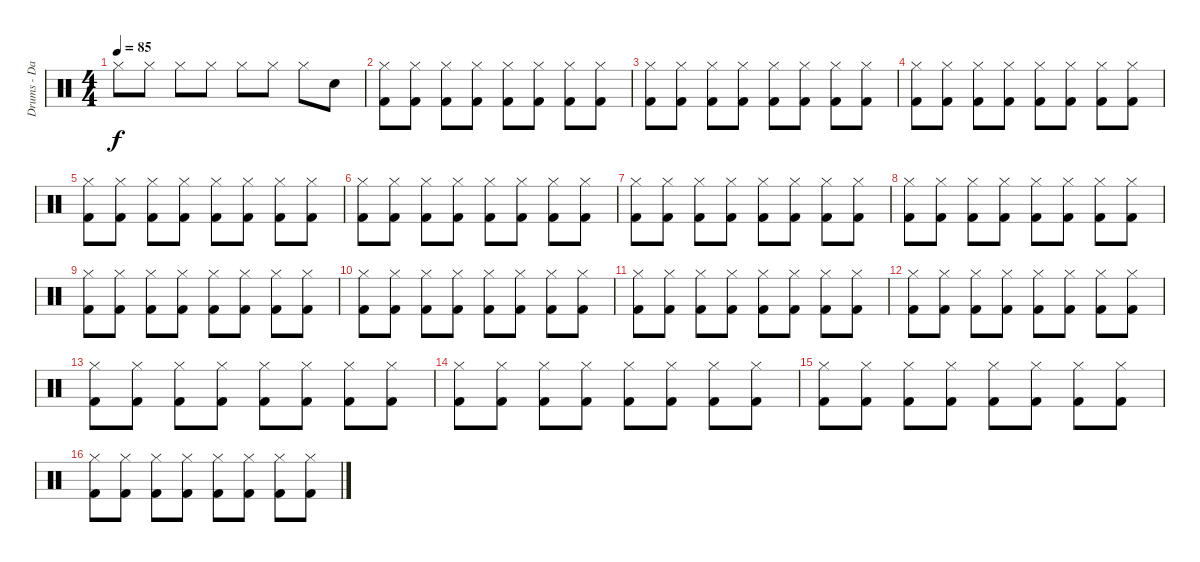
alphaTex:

\track ("Drums - Daniel Zimmermann" "Drums - Da") {instrument percussion}
\staff {score}
\articulation defaults
\ts (4 4)
\tempo 85
\clef neutral
\ks c "Hi-Hat (closed)".8{dy f} "Hi-Hat (closed)".8 "Hi-Hat (closed)".8 "Hi-Hat (closed)".8 "Hi-Hat (closed)".8 "Hi-Hat (closed)".8 "Hi-Hat (closed)".8 "Snare (hit) 2".8
|
("Hi-Hat (closed)" "Kick (hit) 2").8 ("Hi-Hat (closed)" "Kick (hit) 2").8 ("Hi-Hat (closed)" "Kick (hit) 2").8 ("Hi-Hat (closed)" "Kick (hit) 2").8 ("Hi-Hat (closed)" "Kick (hit) 2").8 ("Hi-Hat (closed)" "Kick (hit) 2").8 ("Hi-Hat (closed)" "Kick (hit) 2").8 ("Hi-Hat (closed)" "Kick (hit) 2").8 |
("Hi-Hat (closed)" "Kick (hit) 2").8 ("Hi-Hat (closed)" "Kick (hit) 2").8 ("Hi-Hat (closed)" "Kick (hit) 2").8 ("Hi-Hat (closed)" "Kick (hit) 2").8 ("Hi-Hat (closed)" "Kick (hit) 2").8 ("Hi-Hat (closed)" "Kick (hit) 2").8 ("Hi-Hat (closed)" "Kick (hit) 2").8 ("Hi-Hat (closed)" "Kick (hit) 2").8 |
("Hi-Hat (closed)" "Kick (hit) 2").8 ("Hi-Hat (closed)" "Kick (hit) 2").8 ("Hi-Hat (closed)" "Kick (hit) 2").8 ("Hi-Hat (closed)" "Kick (hit) 2").8 ("Hi-Hat (closed)" "Kick (hit) 2").8 ("Hi-Hat (closed)" "Kick (hit) 2").8 ("Hi-Hat (closed)" "Kick (hit) 2").8 ("Hi-Hat (closed)" "Kick (hit) 2").8 |
("Hi-Hat (closed)" "Kick (hit) 2").8 ("Hi-Hat (closed)" "Kick (hit) 2").8 ("Hi-Hat (closed)" "Kick (hit) 2").8 ("Hi-Hat (closed)" "Kick (hit) 2").8 ("Hi-Hat (closed)" "Kick (hit) 2").8 ("Hi-Hat (closed)" "Kick (hit) 2").8 ("Hi-Hat (closed)" "Kick (hit) 2").8 ("Hi-Hat (closed)" "Kick (hit) 2").8 |
("Hi-Hat (closed)" "Kick (hit) 2").8 ("Hi-Hat (closed)" "Kick (hit) 2").8 ("Hi-Hat (closed)" "Kick (hit) 2").8 ("Hi-Hat (closed)" "Kick (hit) 2").8 ("Hi-Hat (closed)" "Kick (hit) 2").8 ("Hi-Hat (closed)" "Kick (hit) 2").8 ("Hi-Hat (closed)" "Kick (hit) 2").8 ("Hi-Hat (closed)" "Kick (hit) 2").8 |
("Hi-Hat (closed)" "Kick (hit) 2").8 ("Hi-Hat (closed)" "Kick (hit) 2").8 ("Hi-Hat (closed)" "Kick (hit) 2").8 ("Hi-Hat (closed)" "Kick (hit) 2").8 ("Hi-Hat (closed)" "Kick (hit) 2").8 ("Hi-Hat (closed)" "Kick (hit) 2").8 ("Hi-Hat (closed)" "Kick (hit) 2").8 ("Hi-Hat (closed)" "Kick (hit) 2").8 |
("Hi-Hat (closed)" "Kick (hit) 2").8 ("Hi-Hat (closed)" "Kick (hit) 2").8 ("Hi-Hat (closed)" "Kick (hit) 2").8 ("Hi-Hat (closed)" "Kick (hit) 2").8 ("Hi-Hat (closed)" "Kick (hit) 2").8 ("Hi-Hat (closed)" "Kick (hit) 2").8 ("Hi-Hat (closed)" "Kick (hit) 2").8 ("Hi-Hat (closed)" "Kick (hit) 2").8 |
("Hi-Hat (closed)" "Kick (hit) 2").8 ("Hi-Hat (closed)" "Kick (hit) 2").8 ("Hi-Hat (closed)" "Kick (hit) 2").8 ("Hi-Hat (closed)" "Kick (hit) 2").8 ("Hi-Hat (closed)" "Kick (hit) 2").8 ("Hi-Hat (closed)" "Kick (hit) 2").8 ("Hi-Hat (closed)" "Kick (hit) 2").8 ("Hi-Hat (closed)" "Kick (hit) 2").8 |
("Hi-Hat (closed)" "Kick (hit) 2").8 ("Hi-Hat (closed)" "Kick (hit) 2").8 ("Hi-Hat (closed)" "Kick (hit) 2").8 ("Hi-Hat (closed)" "Kick (hit) 2").8 ("Hi-Hat (closed)" "Kick (hit) 2").8 ("Hi-Hat (closed)" "Kick (hit) 2").8 ("Hi-Hat (closed)" "Kick (hit) 2").8 ("Hi-Hat (closed)" "Kick (hit) 2").8 |
("Hi-Hat (closed)" "Kick (hit) 2").8 ("Hi-Hat (closed)" "Kick (hit) 2").8 ("Hi-Hat (closed)" "Kick (hit) 2").8 ("Hi-Hat (closed)" "Kick (hit) 2").8 ("Hi-Hat (closed)" "Kick (hit) 2").8 ("Hi-Hat (closed)" "Kick (hit) 2").8 ("Hi-Hat (closed)" "Kick (hit) 2").8 ("Hi-Hat (closed)" "Kick (hit) 2").8 |
("Hi-Hat (closed)" "Kick (hit) 2").8 ("Hi-Hat (closed)" "Kick (hit) 2").8 ("Hi-Hat (closed)" "Kick (hit) 2").8 ("Hi-Hat (closed)" "Kick (hit) 2").8 ("Hi-Hat (closed)" "Kick (hit) 2").8 ("Hi-Hat (closed)" "Kick (hit) 2").8 ("Hi-Hat (closed)" "Kick (hit) 2").8 ("Hi-Hat (closed)" "Kick (hit) 2").8 |
("Hi-Hat (closed)" "Kick (hit) 2").8 ("Hi-Hat (closed)" "Kick (hit) 2").8 ("Hi-Hat (closed)" "Kick (hit) 2").8 ("Hi-Hat (closed)" "Kick (hit) 2").8 ("Hi-Hat (closed)" "Kick (hit) 2").8 ("Hi-Hat (closed)" "Kick (hit) 2").8 ("Hi-Hat (closed)" "Kick (hit) 2").8 ("Hi-Hat (closed)" "Kick (hit) 2").8 |
("Hi-Hat (closed)" "Kick (hit) 2").8 ("Hi-Hat (closed)" "Kick (hit) 2").8 ("Hi-Hat (closed)" "Kick (hit) 2").8 ("Hi-Hat (closed)" "Kick (hit) 2").8 ("Hi-Hat (closed)" "Kick (hit) 2").8 ("Hi-Hat (closed)" "Kick (hit) 2").8 ("Hi-Hat (closed)" "Kick (hit) 2").8 ("Hi-Hat (closed)" "Kick (hit) 2").8 |
("Hi-Hat (closed)" "Kick (hit) 2").8 ("Hi-Hat (closed)" "Kick (hit) 2").8 ("Hi-Hat (closed)" "Kick (hit) 2").8 ("Hi-Hat (closed)" "Kick (hit) 2").8 ("Hi-Hat (closed)" "Kick (hit) 2").8 ("Hi-Hat (closed)" "Kick (hit) 2").8 ("Hi-Hat (closed)" "Kick (hit) 2").8 ("Hi-Hat (closed)" "Kick (hit) 2").8 |
("Hi-Hat (closed)" "Kick (hit) 2").8 ("Hi-Hat (closed)" "Kick (hit) 2").8 ("Hi-Hat (closed)" "Kick (hit) 2").8 ("Hi-Hat (closed)" "Kick (hit) 2").8 ("Hi-Hat (closed)" "Kick (hit) 2").8 ("Hi-Hat (closed)" "Kick (hit) 2").8 ("Hi-Hat (closed)" "Kick (hit) 2").8 ("Hi-Hat (closed)" "Kick (hit) 2").8
